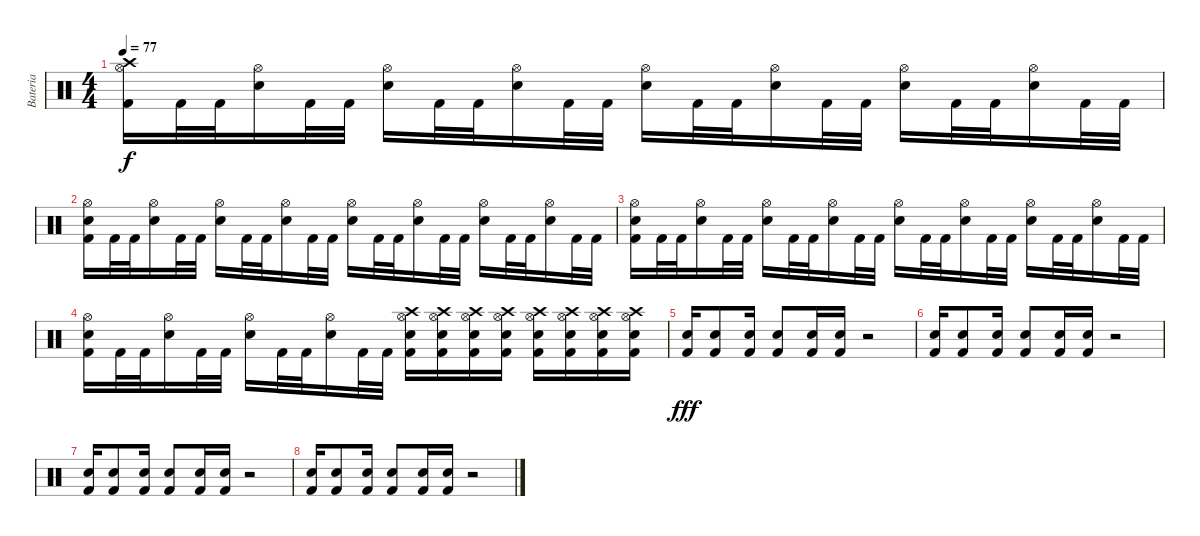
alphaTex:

\track ("Bateria" "Bateria") {instrument percussion}
\staff {score}
\articulation defaults
\ts (4 4)
\tempo 77
\clef neutral
\ks c
("Crash high (hit)" "Hi-Hat (open)" "Kick (hit) 2").16{dy f} "Kick (hit) 2".32 "Kick (hit) 2".32 ("Hi-Hat (open)" "Electric Snare (hit)").16 "Kick (hit) 2".32 "Kick (hit) 2".32 ("Hi-Hat (open)" "Electric Snare (hit)").16 "Kick (hit) 2".32 "Kick (hit) 2".32 ("Hi-Hat (open)" "Electric Snare (hit)").16 "Kick (hit) 2".32 "Kick (hit) 2".32 ("Hi-Hat (open)" "Electric Snare (hit)").16 "Kick (hit) 2".32 "Kick (hit) 2".32 ("Hi-Hat (open)" "Electric Snare (hit)").16 "Kick (hit) 2".32 "Kick (hit) 2".32 ("Hi-Hat (open)" "Electric Snare (hit)").16 "Kick (hit) 2".32 "Kick (hit) 2".32 ("Hi-Hat (open)" "Electric Snare (hit)").16 "Kick (hit) 2".32 "Kick (hit) 2".32 |
("Hi-Hat (open)" "Electric Snare (hit)" "Kick (hit) 2").16 "Kick (hit) 2".32 "Kick (hit) 2".32 ("Hi-Hat (open)" "Electric Snare (hit)").16 "Kick (hit) 2".32 "Kick (hit) 2".32 ("Hi-Hat (open)" "Electric Snare (hit)").16 "Kick (hit) 2".32 "Kick (hit) 2".32 ("Hi-Hat (open)" "Electric Snare (hit)").16 "Kick (hit) 2".32 "Kick (hit) 2".32 ("Hi-Hat (open)" "Electric Snare (hit)").16 "Kick (hit) 2".32 "Kick (hit) 2".32 ("Hi-Hat (open)" "Electric Snare (hit)").16 "Kick (hit) 2".32 "Kick (hit) 2".32 ("Hi-Hat (open)" "Electric Snare (hit)").16 "Kick (hit) 2".32 "Kick (hit) 2".32 ("Hi-Hat (open)" "Electric Snare (hit)").16 "Kick (hit) 2".32 "Kick (hit) 2".32 |
("Hi-Hat (open)" "Electric Snare (hit)" "Kick (hit) 2").16 "Kick (hit) 2".32 "Kick (hit) 2".32 ("Hi-Hat (open)" "Electric Snare (hit)").16 "Kick (hit) 2".32 "Kick (hit) 2".32 ("Hi-Hat (open)" "Electric Snare (hit)").16 "Kick (hit) 2".32 "Kick (hit) 2".32 ("Hi-Hat (open)" "Electric Snare (hit)").16 "Kick (hit) 2".32 "Kick (hit) 2".32 ("Hi-Hat (open)" "Electric Snare (hit)").16 "Kick (hit) 2".32 "Kick (hit) 2".32 ("Hi-Hat (open)" "Electric Snare (hit)").16 "Kick (hit) 2".32 "Kick (hit) 2".32 ("Hi-Hat (open)" "Electric Snare (hit)").16 "Kick (hit) 2".32 "Kick (hit) 2".32 ("Hi-Hat (open)" "Electric Snare (hit)").16 "Kick (hit) 2".32 "Kick (hit) 2".32 |
("Hi-Hat (open)" "Electric Snare (hit)" "Kick (hit) 2").16 "Kick (hit) 2".32 "Kick (hit) 2".32 ("Hi-Hat (open)" "Electric Snare (hit)").16 "Kick (hit) 2".32 "Kick (hit) 2".32 ("Hi-Hat (open)" "Electric Snare (hit)").16 "Kick (hit) 2".32 "Kick (hit) 2".32 ("Hi-Hat (open)" "Electric Snare (hit)").16 "Kick (hit) 2".32 "Kick (hit) 2".32 ("Crash high (hit)" "Hi-Hat (open)" "Electric Snare (hit)" "Kick (hit) 2").16 ("Crash high (hit)" "Hi-Hat (open)" "Electric Snare (hit)" "Kick (hit) 2").16 ("Crash high (hit)" "Hi-Hat (open)" "Electric Snare (hit)" "Kick (hit) 2").16 ("Crash high (hit)" "Hi-Hat (open)" "Electric Snare (hit)" "Kick (hit) 2").16 ("Crash high (hit)" "Hi-Hat (open)" "Electric Snare (hit)" "Kick (hit) 2").16 ("Crash high (hit)" "Hi-Hat (open)" "Electric Snare (hit)" "Kick (hit) 2").16 ("Crash high (hit)" "Hi-Hat (open)" "Electric Snare (hit)" "Kick (hit) 2").16 ("Crash high (hit)" "Hi-Hat (open)" "Electric Snare (hit)" "Kick (hit) 2").16 |
("Electric Snare (hit)" "Kick (hit) 2").16{dy fff} ("Electric Snare (hit)" "Kick (hit) 2").8 ("Electric Snare (hit)" "Kick (hit) 2").16 ("Electric Snare (hit)" "Kick (hit) 2").8 ("Electric Snare (hit)" "Kick (hit) 2").16 ("Electric Snare (hit)" "Kick (hit) 2").16 r.2 |
("Electric Snare (hit)" "Kick (hit) 2").16 ("Electric Snare (hit)" "Kick (hit) 2").8 ("Electric Snare (hit)" "Kick (hit) 2").16 ("Electric Snare (hit)" "Kick (hit) 2").8 ("Electric Snare (hit)" "Kick (hit) 2").16 ("Electric Snare (hit)" "Kick (hit) 2").16 r.2 |
("Electric Snare (hit)" "Kick (hit) 2").16 ("Electric Snare (hit)" "Kick (hit) 2").8 ("Electric Snare (hit)" "Kick (hit) 2").16 ("Electric Snare (hit)" "Kick (hit) 2").8 ("Electric Snare (hit)" "Kick (hit) 2").16 ("Electric Snare (hit)" "Kick (hit) 2").16 r.2 |
("Electric Snare (hit)" "Kick (hit) 2").16 ("Electric Snare (hit)" "Kick (hit) 2").8 ("Electric Snare (hit)" "Kick (hit) 2").16 ("Electric Snare (hit)" "Kick (hit) 2").8 ("Electric Snare (hit)" "Kick (hit) 2").16 ("Electric Snare (hit)" "Kick (hit) 2").16 r.2
